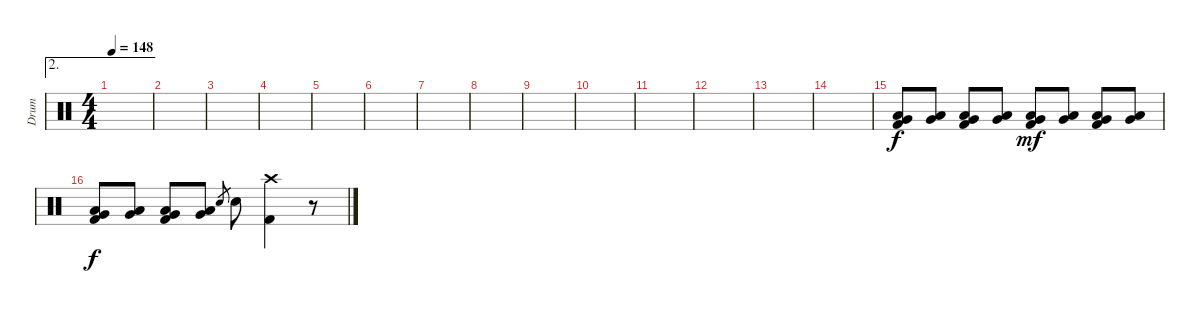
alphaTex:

\track ("Drum" "Drum") {instrument percussion}
\staff {score}
\articulation defaults
\ae 2
\ts (4 4)
\tempo 148
\clef neutral
\ks c
|
|
|
|
|
|
|
|
|
|
|
|
|
|
("Very Low Tom (hit)" "Low Floor Tom (hit)" "Kick (hit) 2").8 ("Very Low Tom (hit)" "Low Floor Tom (hit)").8 ("Very Low Tom (hit)" "Low Floor Tom (hit)" "Kick (hit) 2").8 ("Very Low Tom (hit)" "Low Floor Tom (hit)").8 ("Very Low Tom (hit)" "Low Floor Tom (hit)" "Kick (hit) 2").8{dy mf} ("Very Low Tom (hit)" "Low Floor Tom (hit)").8 ("Very Low Tom (hit)" "Low Floor Tom (hit)" "Kick (hit) 2").8 ("Very Low Tom (hit)" "Low Floor Tom (hit)").8 |
("Very Low Tom (hit)" "Low Floor Tom (hit)" "Kick (hit) 2").8{dy f} ("Very Low Tom (hit)" "Low Floor Tom (hit)").8 ("Very Low Tom (hit)" "Low Floor Tom (hit)" "Kick (hit) 2").8 ("Very Low Tom (hit)" "Low Floor Tom (hit)").8 "Electric Snare (hit)".8{gr} "Electric Snare (hit)".8 ("Crash high (hit)" "Kick (hit) 2").4 r.8
